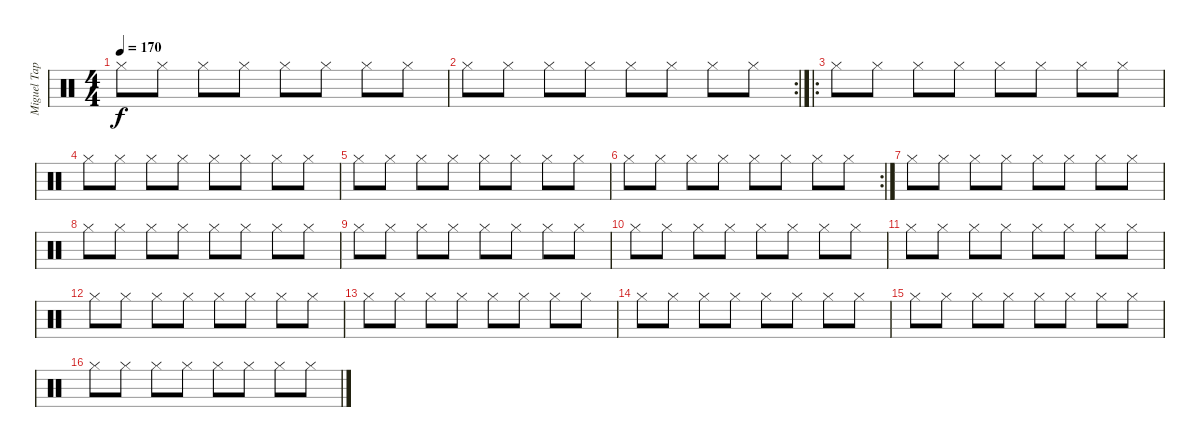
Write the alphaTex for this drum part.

\track ("Miguel Tapia" "Miguel Tap") {instrument percussion}
\staff {score}
\articulation defaults
\ts (4 4)
\tempo 170
\clef neutral
\ks c "Hi-Hat (closed)".8{dy f} "Hi-Hat (closed)".8 "Hi-Hat (closed)".8 "Hi-Hat (closed)".8 "Hi-Hat (closed)".8 "Hi-Hat (closed)".8 "Hi-Hat (closed)".8 "Hi-Hat (closed)".8
|
\rc 2 "Hi-Hat (closed)".8 "Hi-Hat (closed)".8 "Hi-Hat (closed)".8 "Hi-Hat (closed)".8 "Hi-Hat (closed)".8 "Hi-Hat (closed)".8 "Hi-Hat (closed)".8 "Hi-Hat (closed)".8
|
\ro "Hi-Hat (closed)".8 "Hi-Hat (closed)".8 "Hi-Hat (closed)".8 "Hi-Hat (closed)".8 "Hi-Hat (closed)".8 "Hi-Hat (closed)".8 "Hi-Hat (closed)".8 "Hi-Hat (closed)".8
|
"Hi-Hat (closed)".8 "Hi-Hat (closed)".8 "Hi-Hat (closed)".8 "Hi-Hat (closed)".8 "Hi-Hat (closed)".8 "Hi-Hat (closed)".8 "Hi-Hat (closed)".8 "Hi-Hat (closed)".8 |
"Hi-Hat (closed)".8 "Hi-Hat (closed)".8 "Hi-Hat (closed)".8 "Hi-Hat (closed)".8 "Hi-Hat (closed)".8 "Hi-Hat (closed)".8 "Hi-Hat (closed)".8 "Hi-Hat (closed)".8 |
\rc 2 "Hi-Hat (closed)".8 "Hi-Hat (closed)".8 "Hi-Hat (closed)".8 "Hi-Hat (closed)".8 "Hi-Hat (closed)".8 "Hi-Hat (closed)".8 "Hi-Hat (closed)".8 "Hi-Hat (closed)".8
|
"Hi-Hat (closed)".8 "Hi-Hat (closed)".8 "Hi-Hat (closed)".8 "Hi-Hat (closed)".8 "Hi-Hat (closed)".8 "Hi-Hat (closed)".8 "Hi-Hat (closed)".8 "Hi-Hat (closed)".8 |
"Hi-Hat (closed)".8 "Hi-Hat (closed)".8 "Hi-Hat (closed)".8 "Hi-Hat (closed)".8 "Hi-Hat (closed)".8 "Hi-Hat (closed)".8 "Hi-Hat (closed)".8 "Hi-Hat (closed)".8 |
"Hi-Hat (closed)".8 "Hi-Hat (closed)".8 "Hi-Hat (closed)".8 "Hi-Hat (closed)".8 "Hi-Hat (closed)".8 "Hi-Hat (closed)".8 "Hi-Hat (closed)".8 "Hi-Hat (closed)".8 |
"Hi-Hat (closed)".8 "Hi-Hat (closed)".8 "Hi-Hat (closed)".8 "Hi-Hat (closed)".8 "Hi-Hat (closed)".8 "Hi-Hat (closed)".8 "Hi-Hat (closed)".8 "Hi-Hat (closed)".8 |
"Hi-Hat (closed)".8 "Hi-Hat (closed)".8 "Hi-Hat (closed)".8 "Hi-Hat (closed)".8 "Hi-Hat (closed)".8 "Hi-Hat (closed)".8 "Hi-Hat (closed)".8 "Hi-Hat (closed)".8 |
"Hi-Hat (closed)".8 "Hi-Hat (closed)".8 "Hi-Hat (closed)".8 "Hi-Hat (closed)".8 "Hi-Hat (closed)".8 "Hi-Hat (closed)".8 "Hi-Hat (closed)".8 "Hi-Hat (closed)".8 |
"Hi-Hat (closed)".8 "Hi-Hat (closed)".8 "Hi-Hat (closed)".8 "Hi-Hat (closed)".8 "Hi-Hat (closed)".8 "Hi-Hat (closed)".8 "Hi-Hat (closed)".8 "Hi-Hat (closed)".8 |
"Hi-Hat (closed)".8 "Hi-Hat (closed)".8 "Hi-Hat (closed)".8 "Hi-Hat (closed)".8 "Hi-Hat (closed)".8 "Hi-Hat (closed)".8 "Hi-Hat (closed)".8 "Hi-Hat (closed)".8 |
"Hi-Hat (closed)".8 "Hi-Hat (closed)".8 "Hi-Hat (closed)".8 "Hi-Hat (closed)".8 "Hi-Hat (closed)".8 "Hi-Hat (closed)".8 "Hi-Hat (closed)".8 "Hi-Hat (closed)".8 |
"Hi-Hat (closed)".8 "Hi-Hat (closed)".8 "Hi-Hat (closed)".8 "Hi-Hat (closed)".8 "Hi-Hat (closed)".8 "Hi-Hat (closed)".8 "Hi-Hat (closed)".8 "Hi-Hat (closed)".8
